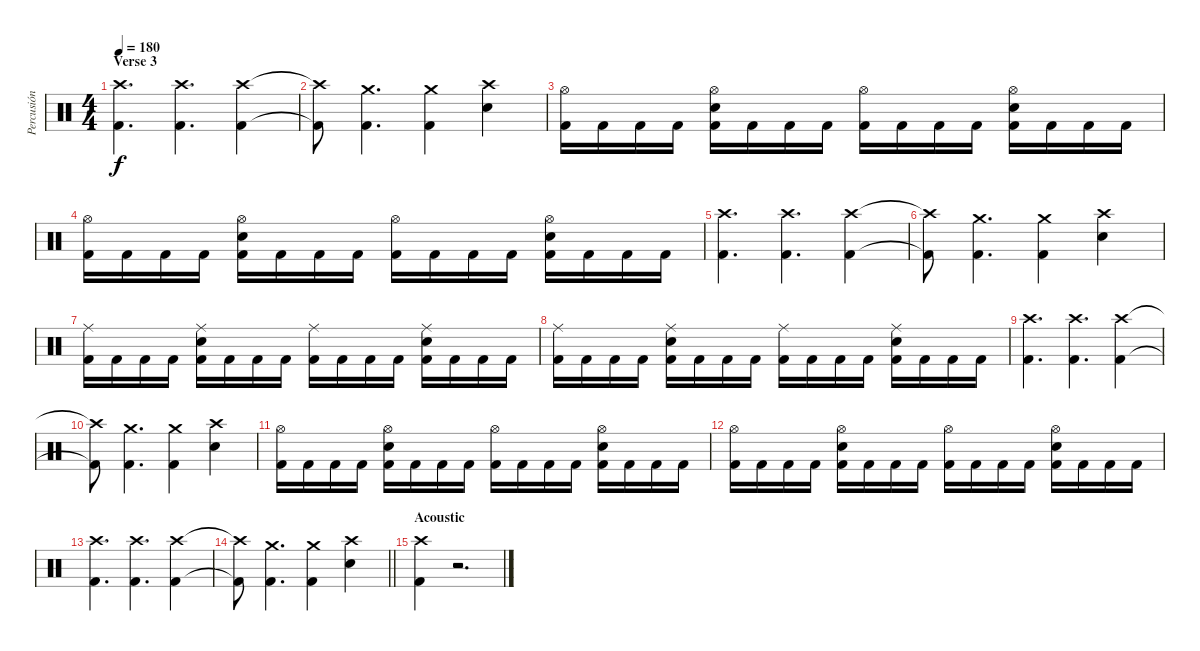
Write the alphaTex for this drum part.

\track ("Percusión" "Percusión") {instrument percussion}
\staff {score}
\articulation defaults
\ts (4 4)
\section ("" "Verse 3")
\tempo 180
\clef neutral
\ks c
("Crash high (hit)" "Kick (hit) 2").4{d dy f} ("Crash high (hit)" "Kick (hit) 2").4{d} ("Crash high (hit)" "Kick (hit) 2").4 |
("Crash high (hit)"{t} "Kick (hit) 2"{t}).8 ("Crash medium (hit)" "Kick (hit) 2").4{d} ("Crash medium (hit)" "Kick (hit) 2").4 ("Crash high (hit)" "Snare (hit) 2").4 |
("Hi-Hat (open)" "Kick (hit) 2").16 "Kick (hit) 2".16 "Kick (hit) 2".16 "Kick (hit) 2".16 ("Hi-Hat (open)" "Snare (hit) 2" "Kick (hit) 2").16 "Kick (hit) 2".16 "Kick (hit) 2".16 "Kick (hit) 2".16 ("Hi-Hat (open)" "Kick (hit) 2").16 "Kick (hit) 2".16 "Kick (hit) 2".16 "Kick (hit) 2".16 ("Hi-Hat (open)" "Snare (hit) 2" "Kick (hit) 2").16 "Kick (hit) 2".16 "Kick (hit) 2".16 "Kick (hit) 2".16 |
("Hi-Hat (open)" "Kick (hit) 2").16 "Kick (hit) 2".16 "Kick (hit) 2".16 "Kick (hit) 2".16 ("Hi-Hat (open)" "Snare (hit) 2" "Kick (hit) 2").16 "Kick (hit) 2".16 "Kick (hit) 2".16 "Kick (hit) 2".16 ("Hi-Hat (open)" "Kick (hit) 2").16 "Kick (hit) 2".16 "Kick (hit) 2".16 "Kick (hit) 2".16 ("Hi-Hat (open)" "Snare (hit) 2" "Kick (hit) 2").16 "Kick (hit) 2".16 "Kick (hit) 2".16 "Kick (hit) 2".16 |
("Crash high (hit)" "Kick (hit) 2").4{d} ("Crash high (hit)" "Kick (hit) 2").4{d} ("Crash high (hit)" "Kick (hit) 2").4 |
("Crash high (hit)"{t} "Kick (hit) 2"{t}).8 ("Crash medium (hit)" "Kick (hit) 2").4{d} ("Crash medium (hit)" "Kick (hit) 2").4 ("Crash high (hit)" "Snare (hit) 2").4 |
("Ride (middle)" "Kick (hit) 2").16 "Kick (hit) 2".16 "Kick (hit) 2".16 "Kick (hit) 2".16 ("Ride (middle)" "Snare (hit) 2" "Kick (hit) 2").16 "Kick (hit) 2".16 "Kick (hit) 2".16 "Kick (hit) 2".16 ("Ride (middle)" "Kick (hit) 2").16 "Kick (hit) 2".16 "Kick (hit) 2".16 "Kick (hit) 2".16 ("Ride (middle)" "Snare (hit) 2" "Kick (hit) 2").16 "Kick (hit) 2".16 "Kick (hit) 2".16 "Kick (hit) 2".16 |
("Ride (middle)" "Kick (hit) 2").16 "Kick (hit) 2".16 "Kick (hit) 2".16 "Kick (hit) 2".16 ("Ride (middle)" "Snare (hit) 2" "Kick (hit) 2").16 "Kick (hit) 2".16 "Kick (hit) 2".16 "Kick (hit) 2".16 ("Ride (middle)" "Kick (hit) 2").16 "Kick (hit) 2".16 "Kick (hit) 2".16 "Kick (hit) 2".16 ("Ride (middle)" "Snare (hit) 2" "Kick (hit) 2").16 "Kick (hit) 2".16 "Kick (hit) 2".16 "Kick (hit) 2".16 |
("Crash high (hit)" "Kick (hit) 2").4{d} ("Crash high (hit)" "Kick (hit) 2").4{d} ("Crash high (hit)" "Kick (hit) 2").4 |
("Crash high (hit)"{t} "Kick (hit) 2"{t}).8 ("Crash medium (hit)" "Kick (hit) 2").4{d} ("Crash medium (hit)" "Kick (hit) 2").4 ("Crash high (hit)" "Snare (hit) 2").4 |
("Hi-Hat (open)" "Kick (hit) 2").16 "Kick (hit) 2".16 "Kick (hit) 2".16 "Kick (hit) 2".16 ("Hi-Hat (open)" "Snare (hit) 2" "Kick (hit) 2").16 "Kick (hit) 2".16 "Kick (hit) 2".16 "Kick (hit) 2".16 ("Hi-Hat (open)" "Kick (hit) 2").16 "Kick (hit) 2".16 "Kick (hit) 2".16 "Kick (hit) 2".16 ("Hi-Hat (open)" "Snare (hit) 2" "Kick (hit) 2").16 "Kick (hit) 2".16 "Kick (hit) 2".16 "Kick (hit) 2".16 |
("Hi-Hat (open)" "Kick (hit) 2").16 "Kick (hit) 2".16 "Kick (hit) 2".16 "Kick (hit) 2".16 ("Hi-Hat (open)" "Snare (hit) 2" "Kick (hit) 2").16 "Kick (hit) 2".16 "Kick (hit) 2".16 "Kick (hit) 2".16 ("Hi-Hat (open)" "Kick (hit) 2").16 "Kick (hit) 2".16 "Kick (hit) 2".16 "Kick (hit) 2".16 ("Hi-Hat (open)" "Snare (hit) 2" "Kick (hit) 2").16 "Kick (hit) 2".16 "Kick (hit) 2".16 "Kick (hit) 2".16 |
("Crash high (hit)" "Kick (hit) 2").4{d} ("Crash high (hit)" "Kick (hit) 2").4{d} ("Crash high (hit)" "Kick (hit) 2").4 |
\barLineRight lightlight
("Crash high (hit)"{t} "Kick (hit) 2"{t}).8 ("Crash medium (hit)" "Kick (hit) 2").4{d} ("Crash medium (hit)" "Kick (hit) 2").4 ("Crash high (hit)" "Snare (hit) 2").4 |
\section ("" "Acoustic")
("Crash high (hit)" "Kick (hit) 2").4 r.2{d}
